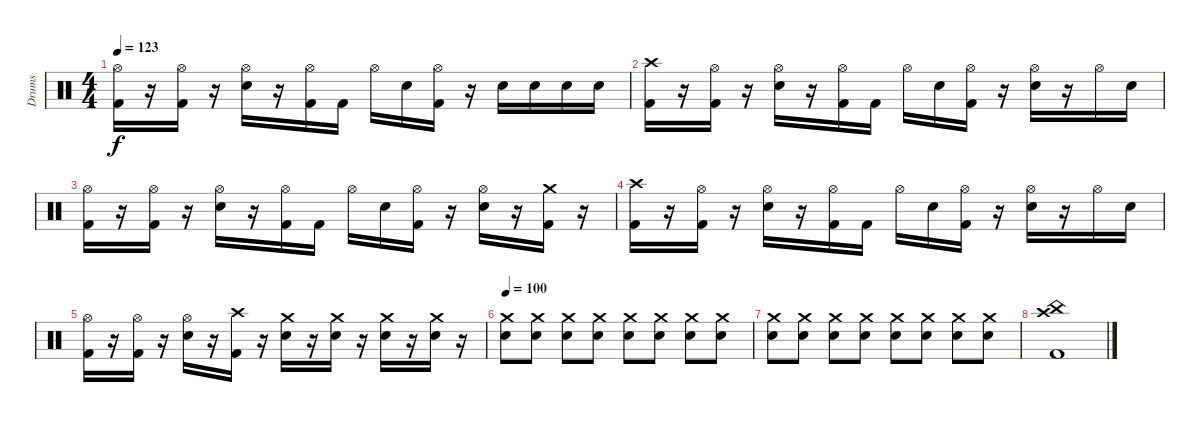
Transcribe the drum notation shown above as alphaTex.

\track ("Drums" "Drums") {instrument percussion}
\staff {score}
\articulation defaults
\ts (4 4)
\tempo 123
\clef neutral
\ks c
("Hi-Hat (open)" "Kick (hit) 2").16{dy f} r.16 ("Hi-Hat (open)" "Kick (hit) 2").16 r.16 ("Hi-Hat (open)" "Electric Snare (hit)").16 r.16 ("Hi-Hat (open)" "Kick (hit) 2").16 "Kick (hit) 2".16 "Hi-Hat (open)".16 "Electric Snare (hit)".16 ("Hi-Hat (open)" "Kick (hit) 2").16 r.16 "Electric Snare (hit)".16 "Electric Snare (hit)".16 "Electric Snare (hit)".16 "Electric Snare (hit)".16 |
("Crash high (hit)" "Kick (hit) 2").16 r.16 ("Hi-Hat (open)" "Kick (hit) 2").16 r.16 ("Hi-Hat (open)" "Electric Snare (hit)").16 r.16 ("Hi-Hat (open)" "Kick (hit) 2").16 "Kick (hit) 2".16 "Hi-Hat (open)".16 "Electric Snare (hit)".16 ("Hi-Hat (open)" "Kick (hit) 2").16 r.16 ("Hi-Hat (open)" "Electric Snare (hit)").16 r.16 "Hi-Hat (open)".16 "Electric Snare (hit)".16 |
("Hi-Hat (open)" "Kick (hit) 2").16 r.16 ("Hi-Hat (open)" "Kick (hit) 2").16 r.16 ("Hi-Hat (open)" "Electric Snare (hit)").16 r.16 ("Hi-Hat (open)" "Kick (hit) 2").16 "Kick (hit) 2".16 "Hi-Hat (open)".16 "Electric Snare (hit)".16 ("Hi-Hat (open)" "Kick (hit) 2").16 r.16 ("Hi-Hat (open)" "Electric Snare (hit)").16 r.16 ("Crash medium (hit)" "Kick (hit) 2").16 r.16 |
("Crash high (hit)" "Kick (hit) 2").16 r.16 ("Hi-Hat (open)" "Kick (hit) 2").16 r.16 ("Hi-Hat (open)" "Electric Snare (hit)").16 r.16 ("Hi-Hat (open)" "Kick (hit) 2").16 "Kick (hit) 2".16 "Hi-Hat (open)".16 "Electric Snare (hit)".16 ("Hi-Hat (open)" "Kick (hit) 2").16 r.16 ("Hi-Hat (open)" "Electric Snare (hit)").16 r.16 "Hi-Hat (open)".16 "Electric Snare (hit)".16 |
("Hi-Hat (open)" "Kick (hit) 2").16 r.16 ("Hi-Hat (open)" "Kick (hit) 2").16 r.16 ("Hi-Hat (open)" "Electric Snare (hit)").16 r.16 ("Crash high (hit)" "Kick (hit) 2").16 r.16 ("Crash medium (hit)" "Electric Snare (hit)").16 r.16 ("Crash medium (hit)" "Electric Snare (hit)").16 r.16 ("Crash medium (hit)" "Electric Snare (hit)").16 r.16 ("Crash medium (hit)" "Electric Snare (hit)").16 r.16 |
\tempo 100
("Crash medium (hit)" "Electric Snare (hit)").8 ("Crash medium (hit)" "Electric Snare (hit)").8 ("Crash medium (hit)" "Electric Snare (hit)").8 ("Crash medium (hit)" "Electric Snare (hit)").8 ("Crash medium (hit)" "Electric Snare (hit)").8 ("Crash medium (hit)" "Electric Snare (hit)").8 ("Crash medium (hit)" "Electric Snare (hit)").8 ("Crash medium (hit)" "Electric Snare (hit)").8 |
("Crash medium (hit)" "Electric Snare (hit)").8 ("Crash medium (hit)" "Electric Snare (hit)").8 ("Crash medium (hit)" "Electric Snare (hit)").8 ("Crash medium (hit)" "Electric Snare (hit)").8 ("Crash medium (hit)" "Electric Snare (hit)").8 ("Crash medium (hit)" "Electric Snare (hit)").8 ("Crash medium (hit)" "Electric Snare (hit)").8 ("Crash medium (hit)" "Electric Snare (hit)").8 |
("China (hit)" "Crash high (hit)" "Kick (hit) 2").1
